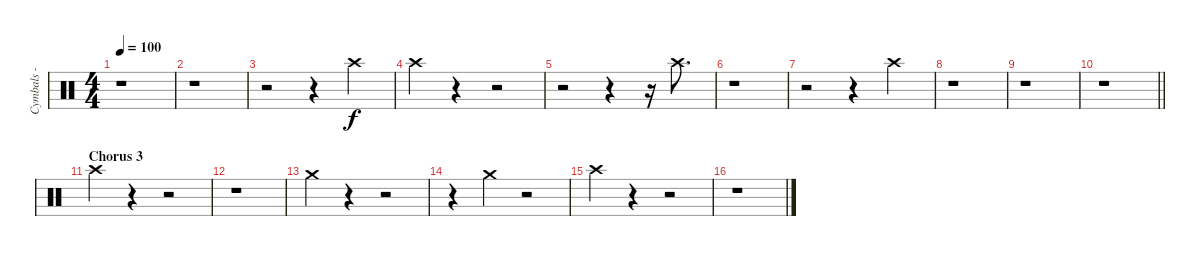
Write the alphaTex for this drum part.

\track ("Cymbals - crash - center" "Cymbals - ") {instrument percussion}
\staff {score}
\articulation defaults
\ts (4 4)
\tempo 100
\clef neutral
\ks c
r.1{dy f} |
r.1 |
r.2 r.4 "Crash high (hit)".4 |
"Crash high (hit)".4 r.4 r.2 |
r.2 r.4 r.16 "Crash high (hit)".8{d} |
r.1 |
r.2 r.4 "Crash high (hit)".4 |
r.1 |
r.1 |
\barLineRight lightlight
r.1 |
\section ("" "Chorus 3")
"Crash high (hit)".4 r.4 r.2 |
r.1 |
"Crash medium (hit)".4 r.4 r.2 |
r.4 "Crash medium (hit)".4 r.2 |
"Crash high (hit)".4 r.4 r.2 |
r.1
